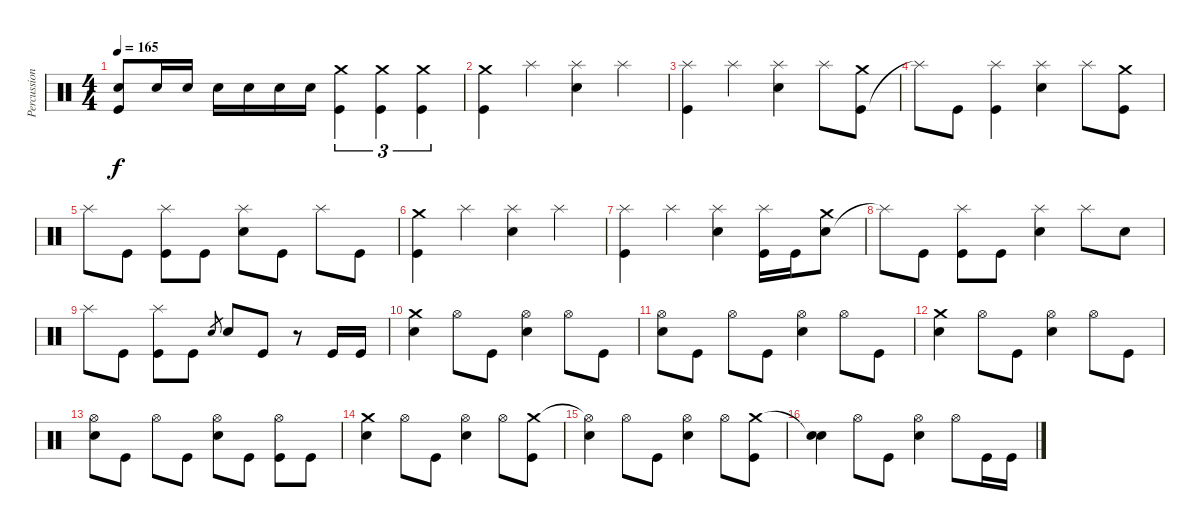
\track ("Percussions" "Percussion") {instrument percussion}
\staff {score}
\articulation defaults
\ts (4 4)
\tempo 165
\clef neutral
\ks c
("Kick (hit)" "Snare (hit)"{t}).8{dy f} "Electric Snare (hit)".16 "Electric Snare (hit)".16 "Electric Snare (hit)".16 "Electric Snare (hit)".16 "Electric Snare (hit)".16 "Electric Snare (hit)".16 ("Kick (hit)" "Crash medium (hit)").4{tu (3 2)} ("Kick (hit)" "Crash medium (hit)").4{tu (3 2)} ("Kick (hit)" "Crash medium (hit)").4{tu (3 2)} |
("Kick (hit)" "Crash medium (hit)").4 "Splash (hit)".4 ("Electric Snare (hit)" "Splash (hit)").4 "Splash (hit)".4 |
("Kick (hit)" "Splash (hit)").4 "Splash (hit)".4 ("Electric Snare (hit)" "Splash (hit)").4 "Splash (hit)".8 ("Kick (hit)" "Crash medium (hit)").8 |
"Splash (hit)"{t}.8 "Kick (hit)".8 ("Kick (hit)" "Splash (hit)").4 ("Electric Snare (hit)" "Splash (hit)").4 "Splash (hit)".8 ("Kick (hit)" "Crash medium (hit)").8 |
"Splash (hit)".8 "Kick (hit)".8 ("Kick (hit)" "Splash (hit)").8 "Kick (hit)".8 ("Electric Snare (hit)" "Splash (hit)").8 "Kick (hit)".8 "Splash (hit)".8 "Kick (hit)".8 |
("Kick (hit)" "Crash medium (hit)").4 "Splash (hit)".4 ("Electric Snare (hit)" "Splash (hit)").4 "Splash (hit)".4 |
("Kick (hit)" "Splash (hit)").4 "Splash (hit)".4 ("Electric Snare (hit)" "Splash (hit)").4 ("Kick (hit)" "Splash (hit)").16 "Kick (hit)".16 ("Electric Snare (hit)" "Crash medium (hit)").8 |
"Splash (hit)"{t}.8 "Kick (hit)".8 ("Kick (hit)" "Splash (hit)").8 "Kick (hit)".8 ("Electric Snare (hit)" "Splash (hit)").4 "Splash (hit)".8 "Electric Snare (hit)".8 |
"Splash (hit)".8 "Kick (hit)".8 ("Kick (hit)" "Splash (hit)").8 "Kick (hit)".8 "Electric Snare (hit)".8{gr} "Electric Snare (hit)".8 "Kick (hit)".8 r.8 "Kick (hit)".16 "Kick (hit)".16 |
("Electric Snare (hit)" "Crash medium (hit)").4 "Hi-Hat (open)".8 "Kick (hit)".8 ("Electric Snare (hit)" "Hi-Hat (open)").4 "Hi-Hat (open)".8 "Kick (hit)".8 |
("Electric Snare (hit)" "Hi-Hat (open)").8 "Kick (hit)".8 "Hi-Hat (open)".8 "Kick (hit)".8 ("Electric Snare (hit)" "Hi-Hat (open)").4 "Hi-Hat (open)".8 "Kick (hit)".8 |
("Electric Snare (hit)" "Crash medium (hit)").4 "Hi-Hat (open)".8 "Kick (hit)".8 ("Electric Snare (hit)" "Hi-Hat (open)").4 "Hi-Hat (open)".8 "Kick (hit)".8 |
("Electric Snare (hit)" "Hi-Hat (open)").8 "Kick (hit)".8 "Hi-Hat (open)".8 "Kick (hit)".8 ("Electric Snare (hit)" "Hi-Hat (open)").8 "Kick (hit)".8 ("Kick (hit)" "Hi-Hat (open)").8 "Kick (hit)".8 |
("Electric Snare (hit)" "Crash medium (hit)").4 "Hi-Hat (open)".8 "Kick (hit)".8 ("Electric Snare (hit)" "Hi-Hat (open)").4 "Hi-Hat (open)".8 ("Kick (hit)" "Crash medium (hit)").8 |
("Electric Snare (hit)" "Hi-Hat (open)"{t}).4 "Hi-Hat (open)".8 "Kick (hit)".8 ("Electric Snare (hit)" "Hi-Hat (open)").4 "Hi-Hat (open)".8 ("Kick (hit)" "Crash medium (hit)").8 |
("Electric Snare (hit)" "Snare (hit)"{t}).4 "Hi-Hat (open)".8 "Kick (hit)".8 ("Electric Snare (hit)" "Hi-Hat (open)").4 "Hi-Hat (open)".8 "Kick (hit)".16 "Kick (hit)".16
